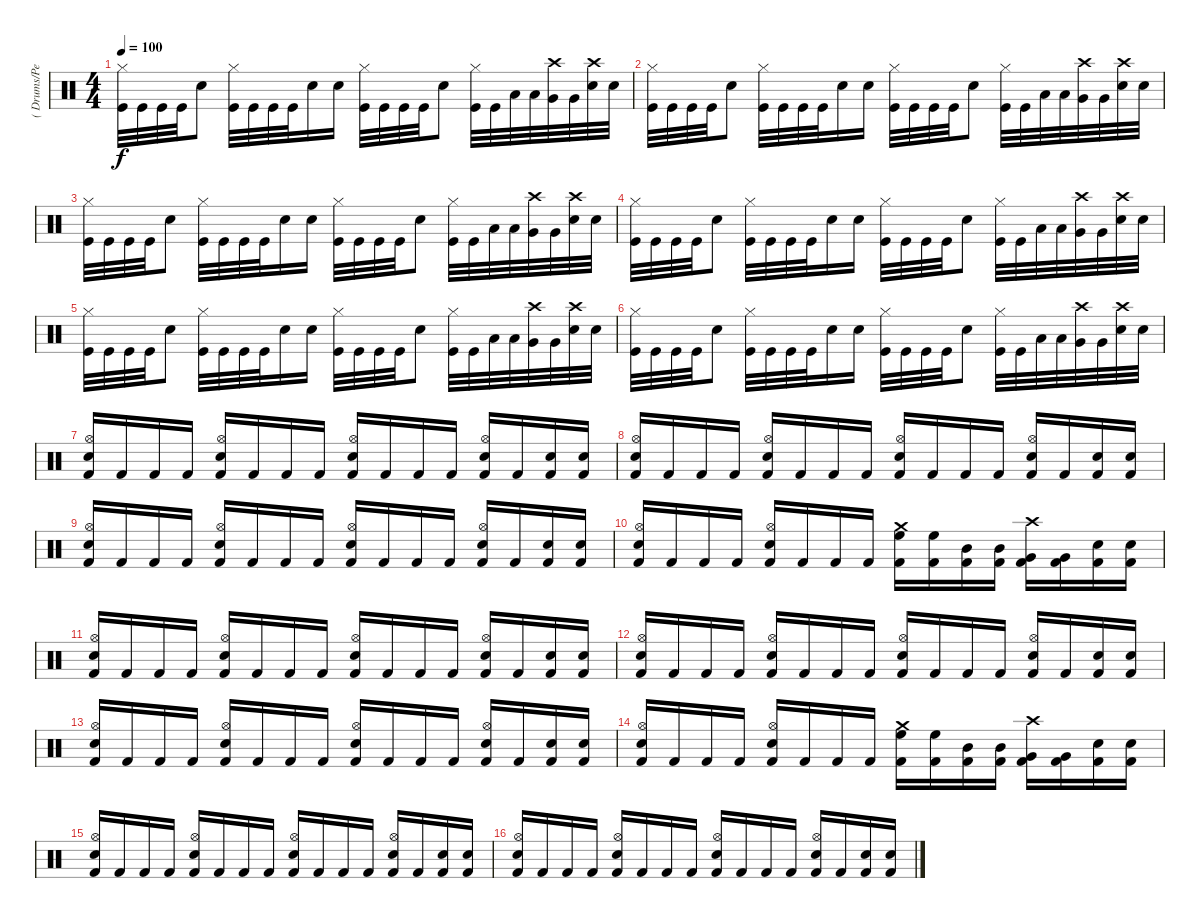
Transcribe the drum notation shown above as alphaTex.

\track ("( Drums/Percussion )" "( Drums/Pe") {instrument percussion}
\staff {score}
\articulation defaults
\ts (4 4)
\tempo 100
\clef neutral
\ks c
("Hi-Hat (closed)" "Kick (hit)").32{dy f} "Kick (hit)".32 "Kick (hit)".32 "Kick (hit)".32 "Snare (hit) 2".8 ("Hi-Hat (closed)" "Kick (hit)").32 "Kick (hit)".32 "Kick (hit)".32 "Kick (hit)".32 "Snare (hit) 2".16 "Snare (hit) 2".16 ("Hi-Hat (closed)" "Kick (hit)").32 "Kick (hit)".32 "Kick (hit)".32 "Kick (hit)".32 "Snare (hit) 2".8 ("Hi-Hat (closed)" "Kick (hit)").32 "Kick (hit)".32 "Low Tom (hit)".32 "Low Tom (hit)".32 ("Crash high (hit)" "Very Low Tom (hit)").32 "Very Low Tom (hit)".32 ("Crash high (hit)" "Snare (hit) 2").32 "Snare (hit) 2".32 |
("Hi-Hat (closed)" "Kick (hit)").32 "Kick (hit)".32 "Kick (hit)".32 "Kick (hit)".32 "Snare (hit) 2".8 ("Hi-Hat (closed)" "Kick (hit)").32 "Kick (hit)".32 "Kick (hit)".32 "Kick (hit)".32 "Snare (hit) 2".16 "Snare (hit) 2".16 ("Hi-Hat (closed)" "Kick (hit)").32 "Kick (hit)".32 "Kick (hit)".32 "Kick (hit)".32 "Snare (hit) 2".8 ("Hi-Hat (closed)" "Kick (hit)").32 "Kick (hit)".32 "Low Tom (hit)".32 "Low Tom (hit)".32 ("Crash high (hit)" "Very Low Tom (hit)").32 "Very Low Tom (hit)".32 ("Crash high (hit)" "Snare (hit) 2").32 "Snare (hit) 2".32 |
("Hi-Hat (closed)" "Kick (hit)").32 "Kick (hit)".32 "Kick (hit)".32 "Kick (hit)".32 "Snare (hit) 2".8 ("Hi-Hat (closed)" "Kick (hit)").32 "Kick (hit)".32 "Kick (hit)".32 "Kick (hit)".32 "Snare (hit) 2".16 "Snare (hit) 2".16 ("Hi-Hat (closed)" "Kick (hit)").32 "Kick (hit)".32 "Kick (hit)".32 "Kick (hit)".32 "Snare (hit) 2".8 ("Hi-Hat (closed)" "Kick (hit)").32 "Kick (hit)".32 "Low Tom (hit)".32 "Low Tom (hit)".32 ("Crash high (hit)" "Very Low Tom (hit)").32 "Very Low Tom (hit)".32 ("Crash high (hit)" "Snare (hit) 2").32 "Snare (hit) 2".32 |
("Hi-Hat (closed)" "Kick (hit)").32 "Kick (hit)".32 "Kick (hit)".32 "Kick (hit)".32 "Snare (hit) 2".8 ("Hi-Hat (closed)" "Kick (hit)").32 "Kick (hit)".32 "Kick (hit)".32 "Kick (hit)".32 "Snare (hit) 2".16 "Snare (hit) 2".16 ("Hi-Hat (closed)" "Kick (hit)").32 "Kick (hit)".32 "Kick (hit)".32 "Kick (hit)".32 "Snare (hit) 2".8 ("Hi-Hat (closed)" "Kick (hit)").32 "Kick (hit)".32 "Low Tom (hit)".32 "Low Tom (hit)".32 ("Crash high (hit)" "Very Low Tom (hit)").32 "Very Low Tom (hit)".32 ("Crash high (hit)" "Snare (hit) 2").32 "Snare (hit) 2".32 |
("Hi-Hat (closed)" "Kick (hit)").32 "Kick (hit)".32 "Kick (hit)".32 "Kick (hit)".32 "Snare (hit) 2".8 ("Hi-Hat (closed)" "Kick (hit)").32 "Kick (hit)".32 "Kick (hit)".32 "Kick (hit)".32 "Snare (hit) 2".16 "Snare (hit) 2".16 ("Hi-Hat (closed)" "Kick (hit)").32 "Kick (hit)".32 "Kick (hit)".32 "Kick (hit)".32 "Snare (hit) 2".8 ("Hi-Hat (closed)" "Kick (hit)").32 "Kick (hit)".32 "Low Tom (hit)".32 "Low Tom (hit)".32 ("Crash high (hit)" "Very Low Tom (hit)").32 "Very Low Tom (hit)".32 ("Crash high (hit)" "Snare (hit) 2").32 "Snare (hit) 2".32 |
("Hi-Hat (closed)" "Kick (hit)").32 "Kick (hit)".32 "Kick (hit)".32 "Kick (hit)".32 "Snare (hit) 2".8 ("Hi-Hat (closed)" "Kick (hit)").32 "Kick (hit)".32 "Kick (hit)".32 "Kick (hit)".32 "Snare (hit) 2".16 "Snare (hit) 2".16 ("Hi-Hat (closed)" "Kick (hit)").32 "Kick (hit)".32 "Kick (hit)".32 "Kick (hit)".32 "Snare (hit) 2".8 ("Hi-Hat (closed)" "Kick (hit)").32 "Kick (hit)".32 "Low Tom (hit)".32 "Low Tom (hit)".32 ("Crash high (hit)" "Very Low Tom (hit)").32 "Very Low Tom (hit)".32 ("Crash high (hit)" "Snare (hit) 2").32 "Snare (hit) 2".32 |
("Hi-Hat (open)" "Snare (hit) 2" "Kick (hit) 2").16 "Kick (hit) 2".16 "Kick (hit) 2".16 "Kick (hit) 2".16 ("Hi-Hat (open)" "Snare (hit) 2" "Kick (hit) 2").16 "Kick (hit) 2".16 "Kick (hit) 2".16 "Kick (hit) 2".16 ("Hi-Hat (open)" "Snare (hit) 2" "Kick (hit) 2").16 "Kick (hit) 2".16 "Kick (hit) 2".16 "Kick (hit) 2".16 ("Hi-Hat (open)" "Snare (hit) 2" "Kick (hit) 2").16 "Kick (hit) 2".16 ("Snare (hit) 2" "Kick (hit) 2").16 ("Snare (hit) 2" "Kick (hit) 2").16 |
("Hi-Hat (open)" "Snare (hit) 2" "Kick (hit) 2").16 "Kick (hit) 2".16 "Kick (hit) 2".16 "Kick (hit) 2".16 ("Hi-Hat (open)" "Snare (hit) 2" "Kick (hit) 2").16 "Kick (hit) 2".16 "Kick (hit) 2".16 "Kick (hit) 2".16 ("Hi-Hat (open)" "Snare (hit) 2" "Kick (hit) 2").16 "Kick (hit) 2".16 "Kick (hit) 2".16 "Kick (hit) 2".16 ("Hi-Hat (open)" "Snare (hit) 2" "Kick (hit) 2").16 "Kick (hit) 2".16 ("Snare (hit) 2" "Kick (hit) 2").16 ("Snare (hit) 2" "Kick (hit) 2").16 |
("Hi-Hat (open)" "Snare (hit) 2" "Kick (hit) 2").16 "Kick (hit) 2".16 "Kick (hit) 2".16 "Kick (hit) 2".16 ("Hi-Hat (open)" "Snare (hit) 2" "Kick (hit) 2").16 "Kick (hit) 2".16 "Kick (hit) 2".16 "Kick (hit) 2".16 ("Hi-Hat (open)" "Snare (hit) 2" "Kick (hit) 2").16 "Kick (hit) 2".16 "Kick (hit) 2".16 "Kick (hit) 2".16 ("Hi-Hat (open)" "Snare (hit) 2" "Kick (hit) 2").16 "Kick (hit) 2".16 ("Snare (hit) 2" "Kick (hit) 2").16 ("Snare (hit) 2" "Kick (hit) 2").16 |
("Hi-Hat (open)" "Snare (hit) 2" "Kick (hit) 2").16 "Kick (hit) 2".16 "Kick (hit) 2".16 "Kick (hit) 2".16 ("Hi-Hat (open)" "Snare (hit) 2" "Kick (hit) 2").16 "Kick (hit) 2".16 "Kick (hit) 2".16 "Kick (hit) 2".16 ("Crash medium (hit)" "High Floor Tom (hit)" "Kick (hit) 2").16 ("High Floor Tom (hit)" "Kick (hit) 2").16 ("Mid Tom (hit)" "Kick (hit) 2").16 ("Mid Tom (hit)" "Kick (hit) 2").16 ("Crash high (hit)" "Very Low Tom (hit)" "Kick (hit) 2").16 ("Very Low Tom (hit)" "Kick (hit) 2").16 ("Snare (hit) 2" "Kick (hit) 2").16 ("Snare (hit) 2" "Kick (hit) 2").16 |
("Hi-Hat (open)" "Snare (hit) 2" "Kick (hit) 2").16 "Kick (hit) 2".16 "Kick (hit) 2".16 "Kick (hit) 2".16 ("Hi-Hat (open)" "Snare (hit) 2" "Kick (hit) 2").16 "Kick (hit) 2".16 "Kick (hit) 2".16 "Kick (hit) 2".16 ("Hi-Hat (open)" "Snare (hit) 2" "Kick (hit) 2").16 "Kick (hit) 2".16 "Kick (hit) 2".16 "Kick (hit) 2".16 ("Hi-Hat (open)" "Snare (hit) 2" "Kick (hit) 2").16 "Kick (hit) 2".16 ("Snare (hit) 2" "Kick (hit) 2").16 ("Snare (hit) 2" "Kick (hit) 2").16 |
("Hi-Hat (open)" "Snare (hit) 2" "Kick (hit) 2").16 "Kick (hit) 2".16 "Kick (hit) 2".16 "Kick (hit) 2".16 ("Hi-Hat (open)" "Snare (hit) 2" "Kick (hit) 2").16 "Kick (hit) 2".16 "Kick (hit) 2".16 "Kick (hit) 2".16 ("Hi-Hat (open)" "Snare (hit) 2" "Kick (hit) 2").16 "Kick (hit) 2".16 "Kick (hit) 2".16 "Kick (hit) 2".16 ("Hi-Hat (open)" "Snare (hit) 2" "Kick (hit) 2").16 "Kick (hit) 2".16 ("Snare (hit) 2" "Kick (hit) 2").16 ("Snare (hit) 2" "Kick (hit) 2").16 |
("Hi-Hat (open)" "Snare (hit) 2" "Kick (hit) 2").16 "Kick (hit) 2".16 "Kick (hit) 2".16 "Kick (hit) 2".16 ("Hi-Hat (open)" "Snare (hit) 2" "Kick (hit) 2").16 "Kick (hit) 2".16 "Kick (hit) 2".16 "Kick (hit) 2".16 ("Hi-Hat (open)" "Snare (hit) 2" "Kick (hit) 2").16 "Kick (hit) 2".16 "Kick (hit) 2".16 "Kick (hit) 2".16 ("Hi-Hat (open)" "Snare (hit) 2" "Kick (hit) 2").16 "Kick (hit) 2".16 ("Snare (hit) 2" "Kick (hit) 2").16 ("Snare (hit) 2" "Kick (hit) 2").16 |
("Hi-Hat (open)" "Snare (hit) 2" "Kick (hit) 2").16 "Kick (hit) 2".16 "Kick (hit) 2".16 "Kick (hit) 2".16 ("Hi-Hat (open)" "Snare (hit) 2" "Kick (hit) 2").16 "Kick (hit) 2".16 "Kick (hit) 2".16 "Kick (hit) 2".16 ("Crash medium (hit)" "High Floor Tom (hit)" "Kick (hit) 2").16 ("High Floor Tom (hit)" "Kick (hit) 2").16 ("Mid Tom (hit)" "Kick (hit) 2").16 ("Mid Tom (hit)" "Kick (hit) 2").16 ("Crash high (hit)" "Very Low Tom (hit)" "Kick (hit) 2").16 ("Very Low Tom (hit)" "Kick (hit) 2").16 ("Snare (hit) 2" "Kick (hit) 2").16 ("Snare (hit) 2" "Kick (hit) 2").16 |
("Hi-Hat (open)" "Snare (hit) 2" "Kick (hit) 2").16 "Kick (hit) 2".16 "Kick (hit) 2".16 "Kick (hit) 2".16 ("Hi-Hat (open)" "Snare (hit) 2" "Kick (hit) 2").16 "Kick (hit) 2".16 "Kick (hit) 2".16 "Kick (hit) 2".16 ("Hi-Hat (open)" "Snare (hit) 2" "Kick (hit) 2").16 "Kick (hit) 2".16 "Kick (hit) 2".16 "Kick (hit) 2".16 ("Hi-Hat (open)" "Snare (hit) 2" "Kick (hit) 2").16 "Kick (hit) 2".16 ("Snare (hit) 2" "Kick (hit) 2").16 ("Snare (hit) 2" "Kick (hit) 2").16 |
("Hi-Hat (open)" "Snare (hit) 2" "Kick (hit) 2").16 "Kick (hit) 2".16 "Kick (hit) 2".16 "Kick (hit) 2".16 ("Hi-Hat (open)" "Snare (hit) 2" "Kick (hit) 2").16 "Kick (hit) 2".16 "Kick (hit) 2".16 "Kick (hit) 2".16 ("Hi-Hat (open)" "Snare (hit) 2" "Kick (hit) 2").16 "Kick (hit) 2".16 "Kick (hit) 2".16 "Kick (hit) 2".16 ("Hi-Hat (open)" "Snare (hit) 2" "Kick (hit) 2").16 "Kick (hit) 2".16 ("Snare (hit) 2" "Kick (hit) 2").16 ("Snare (hit) 2" "Kick (hit) 2").16
